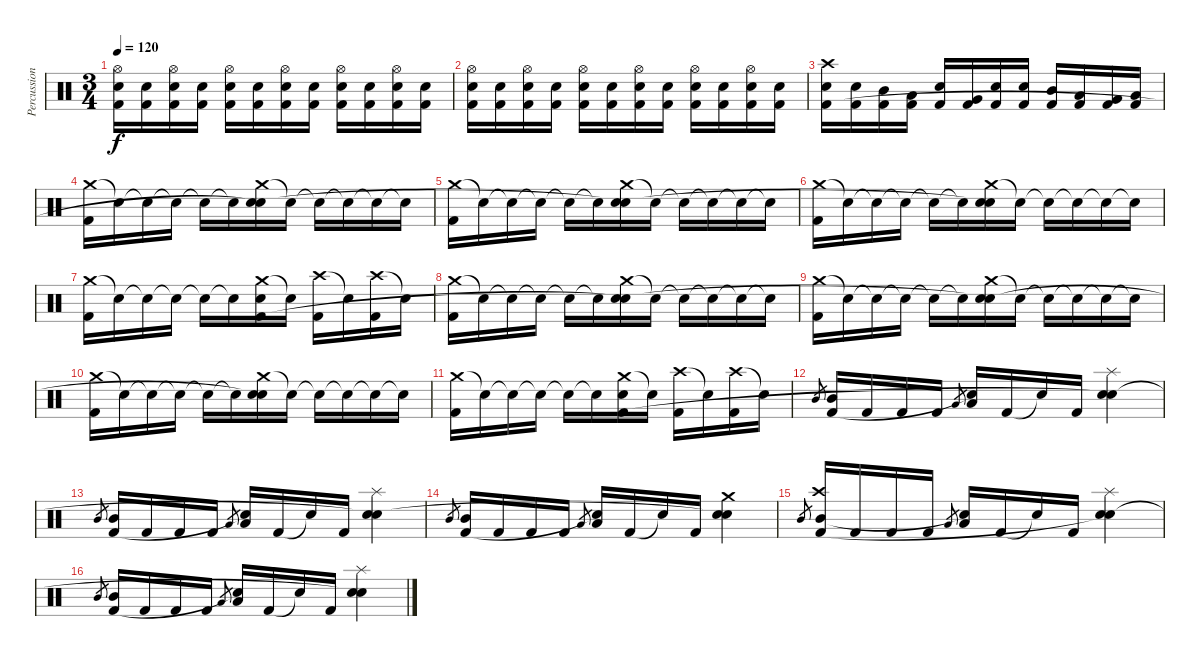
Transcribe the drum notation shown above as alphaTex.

\track ("Percussions" "Percussion") {instrument percussion}
\staff {score}
\articulation defaults
\ts (3 4)
\tempo 120
\clef neutral
\ks c
("Hi-Hat (open)" "Electric Snare (hit)" "Kick (hit) 2").16{dy f} ("Electric Snare (hit)" "Kick (hit) 2").16 ("Hi-Hat (open)" "Electric Snare (hit)" "Kick (hit) 2").16 ("Electric Snare (hit)" "Kick (hit) 2").16 ("Hi-Hat (open)" "Electric Snare (hit)" "Kick (hit) 2").16 ("Electric Snare (hit)" "Kick (hit) 2").16 ("Hi-Hat (open)" "Electric Snare (hit)" "Kick (hit) 2").16 ("Electric Snare (hit)" "Kick (hit) 2").16 ("Hi-Hat (open)" "Electric Snare (hit)" "Kick (hit) 2").16 ("Electric Snare (hit)" "Kick (hit) 2").16 ("Hi-Hat (open)" "Electric Snare (hit)" "Kick (hit) 2").16 ("Electric Snare (hit)" "Kick (hit) 2").16 |
("Hi-Hat (open)" "Electric Snare (hit)" "Kick (hit) 2").16 ("Electric Snare (hit)" "Kick (hit) 2").16 ("Hi-Hat (open)" "Electric Snare (hit)" "Kick (hit) 2").16 ("Electric Snare (hit)" "Kick (hit) 2").16 ("Hi-Hat (open)" "Electric Snare (hit)" "Kick (hit) 2").16 ("Electric Snare (hit)" "Kick (hit) 2").16 ("Hi-Hat (open)" "Electric Snare (hit)" "Kick (hit) 2").16 ("Electric Snare (hit)" "Kick (hit) 2").16 ("Hi-Hat (open)" "Electric Snare (hit)" "Kick (hit) 2").16 ("Electric Snare (hit)" "Kick (hit) 2").16 ("Hi-Hat (open)" "Electric Snare (hit)" "Kick (hit) 2").16 ("Electric Snare (hit)" "Kick (hit) 2").16 |
("Crash high (hit)" "Electric Snare (hit)" "Kick (hit) 2").16 ("Electric Snare (hit)" "Kick (hit) 2").16 ("Mid Tom (hit)" "Kick (hit) 2").16 ("Low Tom (hit)" "Kick (hit) 2").16 ("Electric Snare (hit)" "Kick (hit) 2").16 ("Very Low Tom (hit)" "Kick (hit) 2").16 ("Electric Snare (hit)" "Kick (hit) 2").16 ("Electric Snare (hit)" "Kick (hit) 2").16 ("Mid Tom (hit)" "Kick (hit) 2").16 ("Low Tom (hit)" "Kick (hit) 2").16 ("Very Low Tom (hit)" "Kick (hit) 2").16 ("Low Floor Tom (hit)" "Kick (hit) 2").16 |
("Crash medium (hit)" "Kick (hit) 2").16 "Snare (hit)"{t}.16 "Snare (hit)"{t}.16 "Snare (hit)"{t}.16 "Snare (hit)"{t}.16 "Snare (hit)"{t}.16 ("Crash medium (hit)" "Electric Snare (hit)" "Snare (hit)"{t}).16 "Snare (hit)"{t}.16 "Snare (hit)"{t}.16 "Snare (hit)"{t}.16 "Snare (hit)"{t}.16 "Snare (hit)"{t}.16 |
("Crash medium (hit)" "Kick (hit) 2").16 "Snare (hit)"{t}.16 "Snare (hit)"{t}.16 "Snare (hit)"{t}.16 "Snare (hit)"{t}.16 "Snare (hit)"{t}.16 ("Crash medium (hit)" "Electric Snare (hit)" "Snare (hit)"{t}).16 "Snare (hit)"{t}.16 "Snare (hit)"{t}.16 "Snare (hit)"{t}.16 "Snare (hit)"{t}.16 "Snare (hit)"{t}.16 |
("Crash medium (hit)" "Kick (hit) 2").16 "Snare (hit)"{t}.16 "Snare (hit)"{t}.16 "Snare (hit)"{t}.16 "Snare (hit)"{t}.16 "Snare (hit)"{t}.16 ("Crash medium (hit)" "Electric Snare (hit)" "Snare (hit)"{t}).16 "Snare (hit)"{t}.16 "Snare (hit)"{t}.16 "Snare (hit)"{t}.16 "Snare (hit)"{t}.16 "Snare (hit)"{t}.16 |
("Crash medium (hit)" "Kick (hit) 2").16 "Snare (hit)"{t}.16 "Snare (hit)"{t}.16 "Snare (hit)"{t}.16 "Snare (hit)"{t}.16 "Snare (hit)"{t}.16 ("Crash medium (hit)" "Electric Snare (hit)" "Kick (hit) 2").16 "Snare (hit)"{t}.16 ("Crash high (hit)" "Kick (hit) 2").16 "Snare (hit)"{t}.16 ("Crash high (hit)" "Kick (hit) 2").16 "Snare (hit)"{t}.16 |
("Crash medium (hit)" "Kick (hit) 2").16 "Snare (hit)"{t}.16 "Snare (hit)"{t}.16 "Snare (hit)"{t}.16 "Snare (hit)"{t}.16 "Snare (hit)"{t}.16 ("Crash medium (hit)" "Electric Snare (hit)" "Snare (hit)"{t}).16 "Snare (hit)"{t}.16 "Snare (hit)"{t}.16 "Snare (hit)"{t}.16 "Snare (hit)"{t}.16 "Snare (hit)"{t}.16 |
("Crash medium (hit)" "Kick (hit) 2").16 "Snare (hit)"{t}.16 "Snare (hit)"{t}.16 "Snare (hit)"{t}.16 "Snare (hit)"{t}.16 "Snare (hit)"{t}.16 ("Crash medium (hit)" "Electric Snare (hit)" "Snare (hit)"{t}).16 "Snare (hit)"{t}.16 "Snare (hit)"{t}.16 "Snare (hit)"{t}.16 "Snare (hit)"{t}.16 "Snare (hit)"{t}.16 |
("Crash medium (hit)" "Kick (hit) 2").16 "Snare (hit)"{t}.16 "Snare (hit)"{t}.16 "Snare (hit)"{t}.16 "Snare (hit)"{t}.16 "Snare (hit)"{t}.16 ("Crash medium (hit)" "Electric Snare (hit)" "Snare (hit)"{t}).16 "Snare (hit)"{t}.16 "Snare (hit)"{t}.16 "Snare (hit)"{t}.16 "Snare (hit)"{t}.16 "Snare (hit)"{t}.16 |
("Crash medium (hit)" "Kick (hit) 2").16 "Snare (hit)"{t}.16 "Snare (hit)"{t}.16 "Snare (hit)"{t}.16 "Snare (hit)"{t}.16 "Snare (hit)"{t}.16 ("Crash medium (hit)" "Electric Snare (hit)" "Kick (hit) 2").16 "Snare (hit)"{t}.16 ("Crash high (hit)" "Kick (hit) 2").16 "Snare (hit)"{t}.16 ("Crash high (hit)" "Kick (hit) 2").16 "Snare (hit)"{t}.16 |
"Mid Tom (hit)".8{gr} ("Mid Tom (hit)" "Kick (hit) 2").16 "Kick (hit) 2".16 "Kick (hit) 2".16 "Kick (hit) 2".16 "Low Tom (hit)".8{gr} ("Low Tom (hit)" "Snare (hit)"{t}).16 "Kick (hit) 2".16 "Snare (hit)"{t}.16 "Kick (hit) 2".16 ("Splash (hit)" "Electric Snare (hit)" "Snare (hit)"{t}).4 |
"Mid Tom (hit)".8{gr} ("Mid Tom (hit)" "Kick (hit) 2").16 "Kick (hit) 2".16 "Kick (hit) 2".16 "Kick (hit) 2".16 "Low Tom (hit)".8{gr} ("Low Tom (hit)" "Snare (hit)"{t}).16 "Kick (hit) 2".16 "Snare (hit)"{t}.16 "Kick (hit) 2".16 ("Splash (hit)" "Electric Snare (hit)" "Snare (hit)"{t}).4 |
"Mid Tom (hit)".8{gr} ("Mid Tom (hit)" "Kick (hit) 2").16 "Kick (hit) 2".16 "Kick (hit) 2".16 "Kick (hit) 2".16 "Low Tom (hit)".8{gr} ("Low Tom (hit)" "Snare (hit)"{t}).16 "Kick (hit) 2".16 "Snare (hit)"{t}.16 "Kick (hit) 2".16 ("Crash medium (hit)" "Electric Snare (hit)" "Snare (hit)"{t}).4 |
"Mid Tom (hit)".8{gr} ("Crash high (hit)" "Mid Tom (hit)" "Kick (hit) 2").16 "Kick (hit) 2".16 "Kick (hit) 2".16 "Kick (hit) 2".16 "Low Tom (hit)".8{gr} ("Low Tom (hit)" "Snare (hit)"{t}).16 "Kick (hit) 2".16 "Snare (hit)"{t}.16 "Kick (hit) 2".16 ("Splash (hit)" "Electric Snare (hit)" "Snare (hit)"{t}).4 |
"Mid Tom (hit)".8{gr} ("Mid Tom (hit)" "Kick (hit) 2").16 "Kick (hit) 2".16 "Kick (hit) 2".16 "Kick (hit) 2".16 "Low Tom (hit)".8{gr} ("Low Tom (hit)" "Snare (hit)"{t}).16 "Kick (hit) 2".16 "Snare (hit)"{t}.16 "Kick (hit) 2".16 ("Splash (hit)" "Electric Snare (hit)" "Snare (hit)"{t}).4
